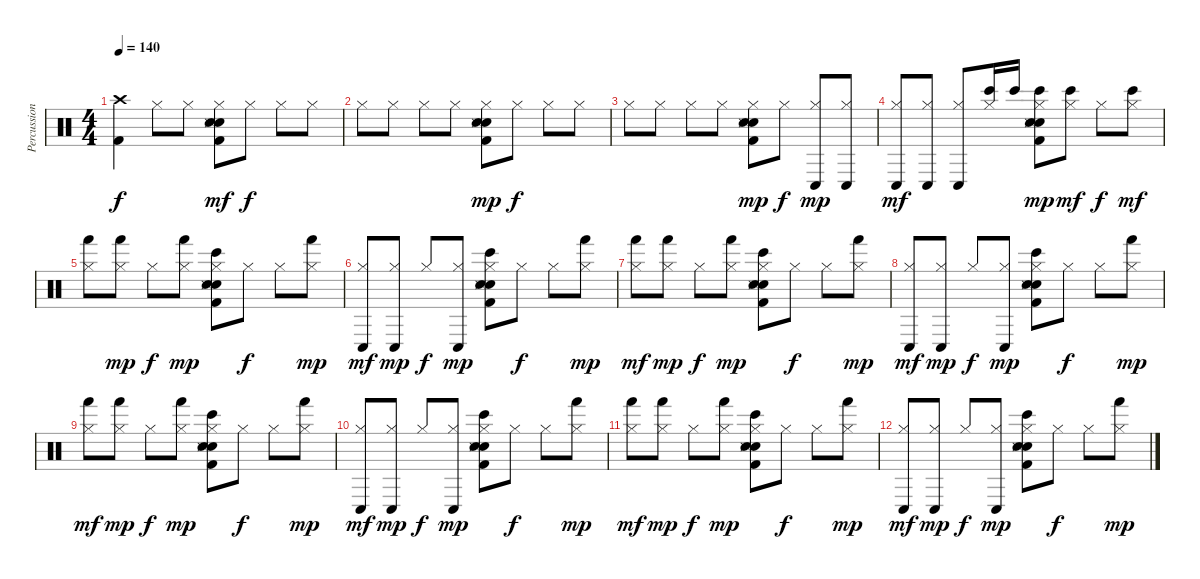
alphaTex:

\track ("Percussion" "Percussion") {instrument percussion}
\staff {score}
\articulation defaults
\ts (4 4)
\tempo 140
\clef neutral
\ks c
("Crash high (hit)" "Kick (hit) 2").4{dy f} "Hi-Hat (closed)".8 "Hi-Hat (closed)".8 ("Hand Clap (hit)" "Hi-Hat (closed)" "Electric Snare (hit)" "Snare (side stick) 3" "Kick (hit) 2").8{dy mf} "Hi-Hat (closed)".8{dy f} "Hi-Hat (closed)".8 "Hi-Hat (closed)".8 |
"Hi-Hat (closed)".8 "Hi-Hat (closed)".8 "Hi-Hat (closed)".8 "Hi-Hat (closed)".8 ("Hand Clap (hit)" "Hi-Hat (closed)" "Electric Snare (hit)" "Snare (side stick) 3" "Kick (hit) 2").8{dy mp} "Hi-Hat (closed)".8{dy f} "Hi-Hat (closed)".8 "Hi-Hat (closed)".8 |
"Hi-Hat (closed)".8 "Hi-Hat (closed)".8 "Hi-Hat (closed)".8 "Hi-Hat (closed)".8 ("Hand Clap (hit)" "Hi-Hat (closed)" "Electric Snare (hit)" "Snare (side stick) 3" "Kick (hit) 2").8{dy mp} "Hi-Hat (closed)".8{dy f} ("Conga low (hit)" "Hi-Hat (closed)").8{dy mp} ("Conga low (hit)" "Hi-Hat (closed)").8 |
("Conga low (hit)" "Hi-Hat (closed)").8{dy mf} ("Conga low (hit)" "Hi-Hat (closed)").8 ("Conga low (hit)" "Hi-Hat (closed)").8 ("Bongo High (hit)" "Hi-Hat (closed)").16 "Bongo High (hit)".16 ("Bongo High (hit)" "Hand Clap (hit)" "Hi-Hat (closed)" "Electric Snare (hit)" "Snare (side stick) 3" "Kick (hit) 2").8{dy mp} ("Bongo High (hit)" "Hi-Hat (closed)").8{dy mf} "Hi-Hat (closed)".8{dy f} ("Bongo High (hit)" "Hi-Hat (closed)").8{dy mf} |
("Hand (hit)" "Hi-Hat (closed)").8 ("Hand (hit)" "Hi-Hat (closed)").8{dy mp} "Hi-Hat (closed)".8{dy f} ("Hand (hit)" "Hi-Hat (closed)").8{dy mp} ("Bongo High (hit)" "Hand Clap (hit)" "Hi-Hat (closed)" "Electric Snare (hit)" "Snare (side stick) 3" "Kick (hit) 2").8 "Hi-Hat (closed)".8{dy f} "Hi-Hat (closed)".8 ("Hand (hit)" "Hi-Hat (closed)").8{dy mp} |
("Conga low (hit)" "Hi-Hat (closed)").8{dy mf} ("Conga low (hit)" "Hi-Hat (closed)").8{dy mp} "Hi-Hat (closed)".8{dy f} ("Conga low (hit)" "Hi-Hat (closed)").8{dy mp} ("Bongo High (hit)" "Hand Clap (hit)" "Hi-Hat (closed)" "Electric Snare (hit)" "Snare (side stick) 3" "Kick (hit) 2").8 "Hi-Hat (closed)".8{dy f} "Hi-Hat (closed)".8 ("Hand (hit)" "Hi-Hat (closed)").8{dy mp} |
("Hand (hit)" "Hi-Hat (closed)").8{dy mf} ("Hand (hit)" "Hi-Hat (closed)").8{dy mp} "Hi-Hat (closed)".8{dy f} ("Hand (hit)" "Hi-Hat (closed)").8{dy mp} ("Bongo High (hit)" "Hand Clap (hit)" "Hi-Hat (closed)" "Electric Snare (hit)" "Snare (side stick) 3" "Kick (hit) 2").8 "Hi-Hat (closed)".8{dy f} "Hi-Hat (closed)".8 ("Hand (hit)" "Hi-Hat (closed)").8{dy mp} |
("Conga low (hit)" "Hi-Hat (closed)").8{dy mf} ("Conga low (hit)" "Hi-Hat (closed)").8{dy mp} "Hi-Hat (closed)".8{dy f} ("Conga low (hit)" "Hi-Hat (closed)").8{dy mp} ("Bongo High (hit)" "Hand Clap (hit)" "Hi-Hat (closed)" "Electric Snare (hit)" "Snare (side stick) 3" "Kick (hit) 2").8 "Hi-Hat (closed)".8{dy f} "Hi-Hat (closed)".8 ("Hand (hit)" "Hi-Hat (closed)").8{dy mp} |
("Hand (hit)" "Hi-Hat (closed)").8{dy mf} ("Hand (hit)" "Hi-Hat (closed)").8{dy mp} "Hi-Hat (closed)".8{dy f} ("Hand (hit)" "Hi-Hat (closed)").8{dy mp} ("Bongo High (hit)" "Hand Clap (hit)" "Hi-Hat (closed)" "Electric Snare (hit)" "Snare (side stick) 3" "Kick (hit) 2").8 "Hi-Hat (closed)".8{dy f} "Hi-Hat (closed)".8 ("Hand (hit)" "Hi-Hat (closed)").8{dy mp} |
("Conga low (hit)" "Hi-Hat (closed)").8{dy mf} ("Conga low (hit)" "Hi-Hat (closed)").8{dy mp} "Hi-Hat (closed)".8{dy f} ("Conga low (hit)" "Hi-Hat (closed)").8{dy mp} ("Bongo High (hit)" "Hand Clap (hit)" "Hi-Hat (closed)" "Electric Snare (hit)" "Snare (side stick) 3" "Kick (hit) 2").8 "Hi-Hat (closed)".8{dy f} "Hi-Hat (closed)".8 ("Hand (hit)" "Hi-Hat (closed)").8{dy mp} |
("Hand (hit)" "Hi-Hat (closed)").8{dy mf} ("Hand (hit)" "Hi-Hat (closed)").8{dy mp} "Hi-Hat (closed)".8{dy f} ("Hand (hit)" "Hi-Hat (closed)").8{dy mp} ("Bongo High (hit)" "Hand Clap (hit)" "Hi-Hat (closed)" "Electric Snare (hit)" "Snare (side stick) 3" "Kick (hit) 2").8 "Hi-Hat (closed)".8{dy f} "Hi-Hat (closed)".8 ("Hand (hit)" "Hi-Hat (closed)").8{dy mp} |
("Conga low (hit)" "Hi-Hat (closed)").8{dy mf} ("Conga low (hit)" "Hi-Hat (closed)").8{dy mp} "Hi-Hat (closed)".8{dy f} ("Conga low (hit)" "Hi-Hat (closed)").8{dy mp} ("Bongo High (hit)" "Hand Clap (hit)" "Hi-Hat (closed)" "Electric Snare (hit)" "Snare (side stick) 3" "Kick (hit) 2").8 "Hi-Hat (closed)".8{dy f} "Hi-Hat (closed)".8 ("Hand (hit)" "Hi-Hat (closed)").8{dy mp}
